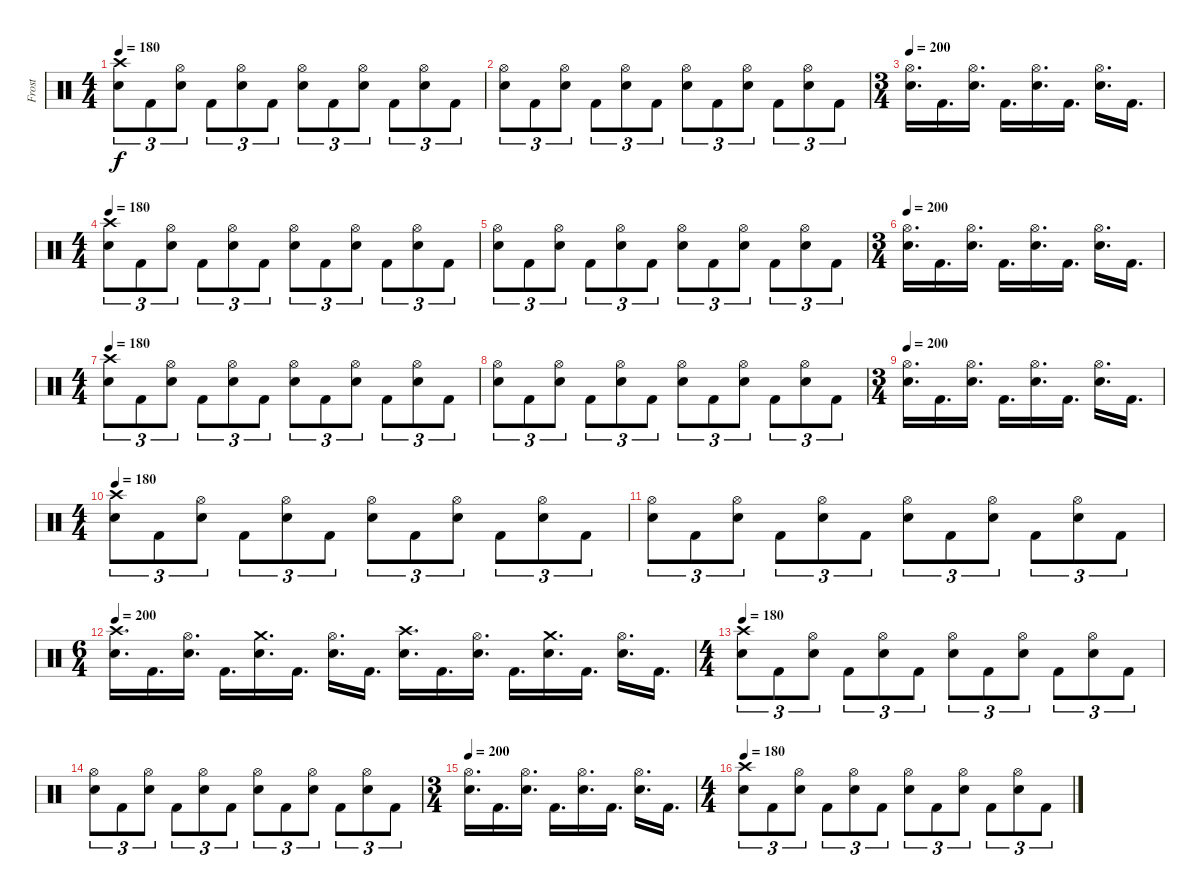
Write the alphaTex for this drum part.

\track ("Frost" "Frost") {instrument percussion}
\staff {score}
\articulation defaults
\ts (4 4)
\tempo 180
\clef neutral
\ks c
("Crash high (hit)" "Snare (hit) 2").8{tu (3 2) dy f} "Kick (hit) 2".8{tu (3 2)} ("Hi-Hat (open)" "Snare (hit) 2").8{tu (3 2)} "Kick (hit) 2".8{tu (3 2)} ("Hi-Hat (open)" "Snare (hit) 2").8{tu (3 2)} "Kick (hit) 2".8{tu (3 2)} ("Hi-Hat (open)" "Snare (hit) 2").8{tu (3 2)} "Kick (hit) 2".8{tu (3 2)} ("Hi-Hat (open)" "Snare (hit) 2").8{tu (3 2)} "Kick (hit) 2".8{tu (3 2)} ("Hi-Hat (open)" "Snare (hit) 2").8{tu (3 2)} "Kick (hit) 2".8{tu (3 2)} |
("Hi-Hat (open)" "Snare (hit) 2").8{tu (3 2)} "Kick (hit) 2".8{tu (3 2)} ("Hi-Hat (open)" "Snare (hit) 2").8{tu (3 2)} "Kick (hit) 2".8{tu (3 2)} ("Hi-Hat (open)" "Snare (hit) 2").8{tu (3 2)} "Kick (hit) 2".8{tu (3 2)} ("Hi-Hat (open)" "Snare (hit) 2").8{tu (3 2)} "Kick (hit) 2".8{tu (3 2)} ("Hi-Hat (open)" "Snare (hit) 2").8{tu (3 2)} "Kick (hit) 2".8{tu (3 2)} ("Hi-Hat (open)" "Snare (hit) 2").8{tu (3 2)} "Kick (hit) 2".8{tu (3 2)} |
\ts (3 4)
\tempo 200
("Hi-Hat (open)" "Snare (hit) 2").16{d} "Kick (hit) 2".16{d} ("Hi-Hat (open)" "Snare (hit) 2").16{d} "Kick (hit) 2".16{d} ("Hi-Hat (open)" "Snare (hit) 2").16{d} "Kick (hit) 2".16{d} ("Hi-Hat (open)" "Snare (hit) 2").16{d} "Kick (hit) 2".16{d} |
\ts (4 4)
\tempo 180
("Crash high (hit)" "Snare (hit) 2").8{tu (3 2)} "Kick (hit) 2".8{tu (3 2)} ("Hi-Hat (open)" "Snare (hit) 2").8{tu (3 2)} "Kick (hit) 2".8{tu (3 2)} ("Hi-Hat (open)" "Snare (hit) 2").8{tu (3 2)} "Kick (hit) 2".8{tu (3 2)} ("Hi-Hat (open)" "Snare (hit) 2").8{tu (3 2)} "Kick (hit) 2".8{tu (3 2)} ("Hi-Hat (open)" "Snare (hit) 2").8{tu (3 2)} "Kick (hit) 2".8{tu (3 2)} ("Hi-Hat (open)" "Snare (hit) 2").8{tu (3 2)} "Kick (hit) 2".8{tu (3 2)} |
("Hi-Hat (open)" "Snare (hit) 2").8{tu (3 2)} "Kick (hit) 2".8{tu (3 2)} ("Hi-Hat (open)" "Snare (hit) 2").8{tu (3 2)} "Kick (hit) 2".8{tu (3 2)} ("Hi-Hat (open)" "Snare (hit) 2").8{tu (3 2)} "Kick (hit) 2".8{tu (3 2)} ("Hi-Hat (open)" "Snare (hit) 2").8{tu (3 2)} "Kick (hit) 2".8{tu (3 2)} ("Hi-Hat (open)" "Snare (hit) 2").8{tu (3 2)} "Kick (hit) 2".8{tu (3 2)} ("Hi-Hat (open)" "Snare (hit) 2").8{tu (3 2)} "Kick (hit) 2".8{tu (3 2)} |
\ts (3 4)
\tempo 200
("Hi-Hat (open)" "Snare (hit) 2").16{d} "Kick (hit) 2".16{d} ("Hi-Hat (open)" "Snare (hit) 2").16{d} "Kick (hit) 2".16{d} ("Hi-Hat (open)" "Snare (hit) 2").16{d} "Kick (hit) 2".16{d} ("Hi-Hat (open)" "Snare (hit) 2").16{d} "Kick (hit) 2".16{d} |
\ts (4 4)
\tempo 180
("Crash high (hit)" "Snare (hit) 2").8{tu (3 2)} "Kick (hit) 2".8{tu (3 2)} ("Hi-Hat (open)" "Snare (hit) 2").8{tu (3 2)} "Kick (hit) 2".8{tu (3 2)} ("Hi-Hat (open)" "Snare (hit) 2").8{tu (3 2)} "Kick (hit) 2".8{tu (3 2)} ("Hi-Hat (open)" "Snare (hit) 2").8{tu (3 2)} "Kick (hit) 2".8{tu (3 2)} ("Hi-Hat (open)" "Snare (hit) 2").8{tu (3 2)} "Kick (hit) 2".8{tu (3 2)} ("Hi-Hat (open)" "Snare (hit) 2").8{tu (3 2)} "Kick (hit) 2".8{tu (3 2)} |
("Hi-Hat (open)" "Snare (hit) 2").8{tu (3 2)} "Kick (hit) 2".8{tu (3 2)} ("Hi-Hat (open)" "Snare (hit) 2").8{tu (3 2)} "Kick (hit) 2".8{tu (3 2)} ("Hi-Hat (open)" "Snare (hit) 2").8{tu (3 2)} "Kick (hit) 2".8{tu (3 2)} ("Hi-Hat (open)" "Snare (hit) 2").8{tu (3 2)} "Kick (hit) 2".8{tu (3 2)} ("Hi-Hat (open)" "Snare (hit) 2").8{tu (3 2)} "Kick (hit) 2".8{tu (3 2)} ("Hi-Hat (open)" "Snare (hit) 2").8{tu (3 2)} "Kick (hit) 2".8{tu (3 2)} |
\ts (3 4)
\tempo 200
("Hi-Hat (open)" "Snare (hit) 2").16{d} "Kick (hit) 2".16{d} ("Hi-Hat (open)" "Snare (hit) 2").16{d} "Kick (hit) 2".16{d} ("Hi-Hat (open)" "Snare (hit) 2").16{d} "Kick (hit) 2".16{d} ("Hi-Hat (open)" "Snare (hit) 2").16{d} "Kick (hit) 2".16{d} |
\ts (4 4)
\tempo 180
("Crash high (hit)" "Snare (hit) 2").8{tu (3 2)} "Kick (hit) 2".8{tu (3 2)} ("Hi-Hat (open)" "Snare (hit) 2").8{tu (3 2)} "Kick (hit) 2".8{tu (3 2)} ("Hi-Hat (open)" "Snare (hit) 2").8{tu (3 2)} "Kick (hit) 2".8{tu (3 2)} ("Hi-Hat (open)" "Snare (hit) 2").8{tu (3 2)} "Kick (hit) 2".8{tu (3 2)} ("Hi-Hat (open)" "Snare (hit) 2").8{tu (3 2)} "Kick (hit) 2".8{tu (3 2)} ("Hi-Hat (open)" "Snare (hit) 2").8{tu (3 2)} "Kick (hit) 2".8{tu (3 2)} |
("Hi-Hat (open)" "Snare (hit) 2").8{tu (3 2)} "Kick (hit) 2".8{tu (3 2)} ("Hi-Hat (open)" "Snare (hit) 2").8{tu (3 2)} "Kick (hit) 2".8{tu (3 2)} ("Hi-Hat (open)" "Snare (hit) 2").8{tu (3 2)} "Kick (hit) 2".8{tu (3 2)} ("Hi-Hat (open)" "Snare (hit) 2").8{tu (3 2)} "Kick (hit) 2".8{tu (3 2)} ("Hi-Hat (open)" "Snare (hit) 2").8{tu (3 2)} "Kick (hit) 2".8{tu (3 2)} ("Hi-Hat (open)" "Snare (hit) 2").8{tu (3 2)} "Kick (hit) 2".8{tu (3 2)} |
\ts (6 4)
\tempo 200
("Crash high (hit)" "Snare (hit) 2").16{d} "Kick (hit) 2".16{d} ("Hi-Hat (open)" "Snare (hit) 2").16{d} "Kick (hit) 2".16{d} ("Crash medium (hit)" "Snare (hit) 2").16{d} "Kick (hit) 2".16{d} ("Hi-Hat (open)" "Snare (hit) 2").16{d} "Kick (hit) 2".16{d} ("Crash high (hit)" "Snare (hit) 2").16{d} "Kick (hit) 2".16{d} ("Hi-Hat (open)" "Snare (hit) 2").16{d} "Kick (hit) 2".16{d} ("Crash medium (hit)" "Snare (hit) 2").16{d} "Kick (hit) 2".16{d} ("Hi-Hat (open)" "Snare (hit) 2").16{d} "Kick (hit) 2".16{d} |
\ts (4 4)
\tempo 180
("Crash high (hit)" "Snare (hit) 2").8{tu (3 2)} "Kick (hit) 2".8{tu (3 2)} ("Hi-Hat (open)" "Snare (hit) 2").8{tu (3 2)} "Kick (hit) 2".8{tu (3 2)} ("Hi-Hat (open)" "Snare (hit) 2").8{tu (3 2)} "Kick (hit) 2".8{tu (3 2)} ("Hi-Hat (open)" "Snare (hit) 2").8{tu (3 2)} "Kick (hit) 2".8{tu (3 2)} ("Hi-Hat (open)" "Snare (hit) 2").8{tu (3 2)} "Kick (hit) 2".8{tu (3 2)} ("Hi-Hat (open)" "Snare (hit) 2").8{tu (3 2)} "Kick (hit) 2".8{tu (3 2)} |
("Hi-Hat (open)" "Snare (hit) 2").8{tu (3 2)} "Kick (hit) 2".8{tu (3 2)} ("Hi-Hat (open)" "Snare (hit) 2").8{tu (3 2)} "Kick (hit) 2".8{tu (3 2)} ("Hi-Hat (open)" "Snare (hit) 2").8{tu (3 2)} "Kick (hit) 2".8{tu (3 2)} ("Hi-Hat (open)" "Snare (hit) 2").8{tu (3 2)} "Kick (hit) 2".8{tu (3 2)} ("Hi-Hat (open)" "Snare (hit) 2").8{tu (3 2)} "Kick (hit) 2".8{tu (3 2)} ("Hi-Hat (open)" "Snare (hit) 2").8{tu (3 2)} "Kick (hit) 2".8{tu (3 2)} |
\ts (3 4)
\tempo 200
("Hi-Hat (open)" "Snare (hit) 2").16{d} "Kick (hit) 2".16{d} ("Hi-Hat (open)" "Snare (hit) 2").16{d} "Kick (hit) 2".16{d} ("Hi-Hat (open)" "Snare (hit) 2").16{d} "Kick (hit) 2".16{d} ("Hi-Hat (open)" "Snare (hit) 2").16{d} "Kick (hit) 2".16{d} |
\ts (4 4)
\tempo 180
("Crash high (hit)" "Snare (hit) 2").8{tu (3 2)} "Kick (hit) 2".8{tu (3 2)} ("Hi-Hat (open)" "Snare (hit) 2").8{tu (3 2)} "Kick (hit) 2".8{tu (3 2)} ("Hi-Hat (open)" "Snare (hit) 2").8{tu (3 2)} "Kick (hit) 2".8{tu (3 2)} ("Hi-Hat (open)" "Snare (hit) 2").8{tu (3 2)} "Kick (hit) 2".8{tu (3 2)} ("Hi-Hat (open)" "Snare (hit) 2").8{tu (3 2)} "Kick (hit) 2".8{tu (3 2)} ("Hi-Hat (open)" "Snare (hit) 2").8{tu (3 2)} "Kick (hit) 2".8{tu (3 2)}
